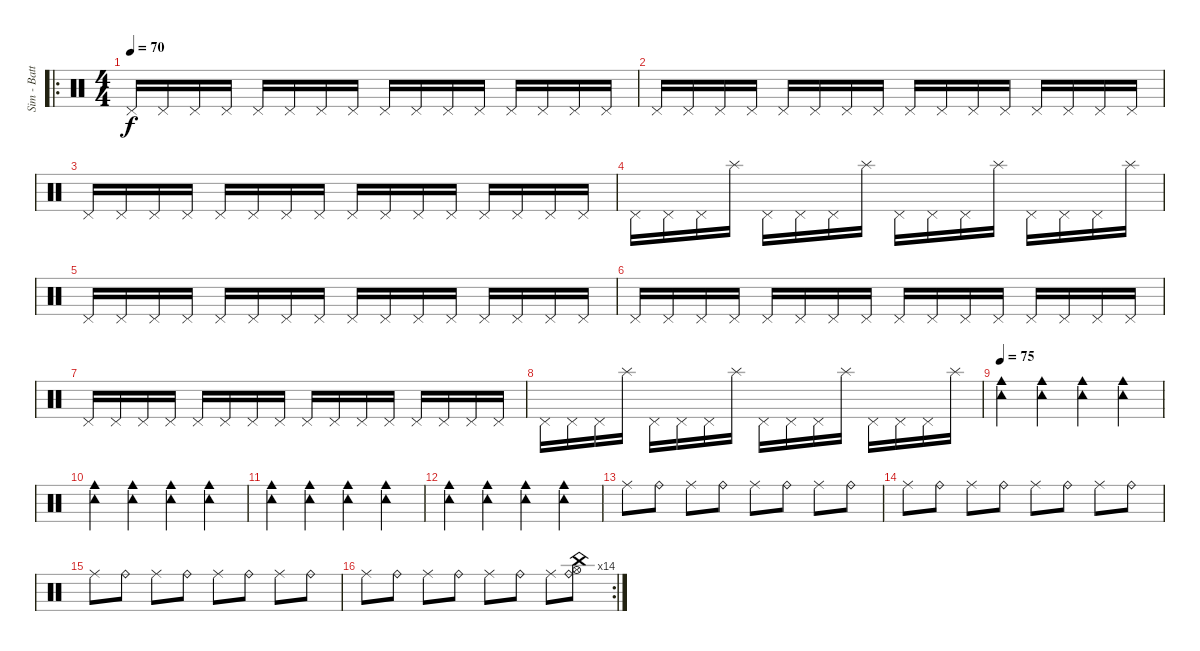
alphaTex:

\track ("Sim - Batterie-" "Sim - Batt") {instrument percussion}
\staff {score}
\articulation defaults
\ro
\ts (4 4)
\tempo 70
\clef neutral
\ks c "Pedal Hi-Hat (hit)".16{dy f} "Pedal Hi-Hat (hit)".16 "Pedal Hi-Hat (hit)".16 "Pedal Hi-Hat (hit)".16 "Pedal Hi-Hat (hit)".16 "Pedal Hi-Hat (hit)".16 "Pedal Hi-Hat (hit)".16 "Pedal Hi-Hat (hit)".16 "Pedal Hi-Hat (hit)".16 "Pedal Hi-Hat (hit)".16 "Pedal Hi-Hat (hit)".16 "Pedal Hi-Hat (hit)".16 "Pedal Hi-Hat (hit)".16 "Pedal Hi-Hat (hit)".16 "Pedal Hi-Hat (hit)".16 "Pedal Hi-Hat (hit)".16
|
"Pedal Hi-Hat (hit)".16 "Pedal Hi-Hat (hit)".16 "Pedal Hi-Hat (hit)".16 "Pedal Hi-Hat (hit)".16 "Pedal Hi-Hat (hit)".16 "Pedal Hi-Hat (hit)".16 "Pedal Hi-Hat (hit)".16 "Pedal Hi-Hat (hit)".16 "Pedal Hi-Hat (hit)".16 "Pedal Hi-Hat (hit)".16 "Pedal Hi-Hat (hit)".16 "Pedal Hi-Hat (hit)".16 "Pedal Hi-Hat (hit)".16 "Pedal Hi-Hat (hit)".16 "Pedal Hi-Hat (hit)".16 "Pedal Hi-Hat (hit)".16 |
"Pedal Hi-Hat (hit)".16 "Pedal Hi-Hat (hit)".16 "Pedal Hi-Hat (hit)".16 "Pedal Hi-Hat (hit)".16 "Pedal Hi-Hat (hit)".16 "Pedal Hi-Hat (hit)".16 "Pedal Hi-Hat (hit)".16 "Pedal Hi-Hat (hit)".16 "Pedal Hi-Hat (hit)".16 "Pedal Hi-Hat (hit)".16 "Pedal Hi-Hat (hit)".16 "Pedal Hi-Hat (hit)".16 "Pedal Hi-Hat (hit)".16 "Pedal Hi-Hat (hit)".16 "Pedal Hi-Hat (hit)".16 "Pedal Hi-Hat (hit)".16 |
"Pedal Hi-Hat (hit)".16 "Pedal Hi-Hat (hit)".16 "Pedal Hi-Hat (hit)".16 "Splash (hit)".16 "Pedal Hi-Hat (hit)".16 "Pedal Hi-Hat (hit)".16 "Pedal Hi-Hat (hit)".16 "Splash (hit)".16 "Pedal Hi-Hat (hit)".16 "Pedal Hi-Hat (hit)".16 "Pedal Hi-Hat (hit)".16 "Splash (hit)".16 "Pedal Hi-Hat (hit)".16 "Pedal Hi-Hat (hit)".16 "Pedal Hi-Hat (hit)".16 "Splash (hit)".16 |
"Pedal Hi-Hat (hit)".16 "Pedal Hi-Hat (hit)".16 "Pedal Hi-Hat (hit)".16 "Pedal Hi-Hat (hit)".16 "Pedal Hi-Hat (hit)".16 "Pedal Hi-Hat (hit)".16 "Pedal Hi-Hat (hit)".16 "Pedal Hi-Hat (hit)".16 "Pedal Hi-Hat (hit)".16 "Pedal Hi-Hat (hit)".16 "Pedal Hi-Hat (hit)".16 "Pedal Hi-Hat (hit)".16 "Pedal Hi-Hat (hit)".16 "Pedal Hi-Hat (hit)".16 "Pedal Hi-Hat (hit)".16 "Pedal Hi-Hat (hit)".16 |
"Pedal Hi-Hat (hit)".16 "Pedal Hi-Hat (hit)".16 "Pedal Hi-Hat (hit)".16 "Pedal Hi-Hat (hit)".16 "Pedal Hi-Hat (hit)".16 "Pedal Hi-Hat (hit)".16 "Pedal Hi-Hat (hit)".16 "Pedal Hi-Hat (hit)".16 "Pedal Hi-Hat (hit)".16 "Pedal Hi-Hat (hit)".16 "Pedal Hi-Hat (hit)".16 "Pedal Hi-Hat (hit)".16 "Pedal Hi-Hat (hit)".16 "Pedal Hi-Hat (hit)".16 "Pedal Hi-Hat (hit)".16 "Pedal Hi-Hat (hit)".16 |
"Pedal Hi-Hat (hit)".16 "Pedal Hi-Hat (hit)".16 "Pedal Hi-Hat (hit)".16 "Pedal Hi-Hat (hit)".16 "Pedal Hi-Hat (hit)".16 "Pedal Hi-Hat (hit)".16 "Pedal Hi-Hat (hit)".16 "Pedal Hi-Hat (hit)".16 "Pedal Hi-Hat (hit)".16 "Pedal Hi-Hat (hit)".16 "Pedal Hi-Hat (hit)".16 "Pedal Hi-Hat (hit)".16 "Pedal Hi-Hat (hit)".16 "Pedal Hi-Hat (hit)".16 "Pedal Hi-Hat (hit)".16 "Pedal Hi-Hat (hit)".16 |
"Pedal Hi-Hat (hit)".16 "Pedal Hi-Hat (hit)".16 "Pedal Hi-Hat (hit)".16 "Splash (hit)".16 "Pedal Hi-Hat (hit)".16 "Pedal Hi-Hat (hit)".16 "Pedal Hi-Hat (hit)".16 "Splash (hit)".16 "Pedal Hi-Hat (hit)".16 "Pedal Hi-Hat (hit)".16 "Pedal Hi-Hat (hit)".16 "Splash (hit)".16 "Pedal Hi-Hat (hit)".16 "Pedal Hi-Hat (hit)".16 "Pedal Hi-Hat (hit)".16 "Splash (hit)".16 |
\tempo 75
("Cowbell medium (hit)" "Tambourine (hit)").4 ("Cowbell medium (hit)" "Tambourine (hit)").4 ("Cowbell medium (hit)" "Tambourine (hit)").4 ("Cowbell medium (hit)" "Tambourine (hit)").4 |
("Cowbell medium (hit)" "Tambourine (hit)").4 ("Cowbell medium (hit)" "Tambourine (hit)").4 ("Cowbell medium (hit)" "Tambourine (hit)").4 ("Cowbell medium (hit)" "Tambourine (hit)").4 |
("Cowbell medium (hit)" "Tambourine (hit)").4 ("Cowbell medium (hit)" "Tambourine (hit)").4 ("Cowbell medium (hit)" "Tambourine (hit)").4 ("Cowbell medium (hit)" "Tambourine (hit)").4 |
("Cowbell medium (hit)" "Tambourine (hit)").4 ("Cowbell medium (hit)" "Tambourine (hit)").4 ("Cowbell medium (hit)" "Tambourine (hit)").4 ("Cowbell medium (hit)" "Tambourine (hit)").4 |
"Ride (middle)".8 "Ride (bell)".8 "Ride (middle)".8 "Ride (bell)".8 "Ride (middle)".8 "Ride (bell)".8 "Ride (middle)".8 "Ride (bell)".8 |
"Ride (middle)".8 "Ride (bell)".8 "Ride (middle)".8 "Ride (bell)".8 "Ride (middle)".8 "Ride (bell)".8 "Ride (middle)".8 "Ride (bell)".8 |
"Ride (middle)".8 "Ride (bell)".8 "Ride (middle)".8 "Ride (bell)".8 "Ride (middle)".8 "Ride (bell)".8 "Ride (middle)".8 "Ride (bell)".8 |
\rc 14 "Ride (middle)".8 "Ride (bell)".8 "Ride (middle)".8 "Ride (bell)".8 "Ride (middle)".8 "Ride (bell)".8 "Ride (middle)".8
("Ride (bell)" "China (hit)" "Hi-Hat (open)").8
